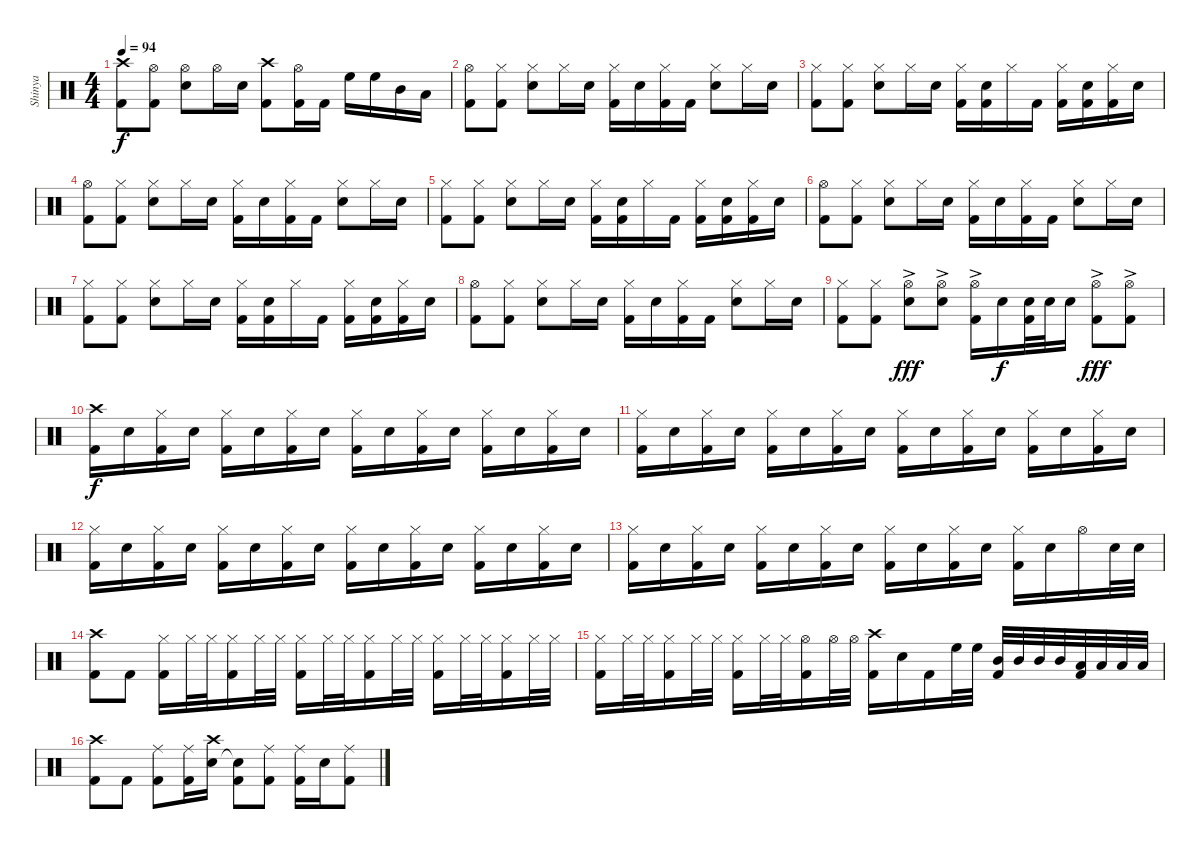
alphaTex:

\track ("Shinya" "Shinya") {instrument percussion}
\staff {score}
\articulation defaults
\ts (4 4)
\tempo 94
\clef neutral
\ks c
("Kick (hit) 2" "Crash high (hit)").8{dy f} ("Kick (hit) 2" "Hi-Hat (open)").8 ("Snare (hit) 2" "Hi-Hat (open)").8 "Hi-Hat (open)".16 "Snare (hit) 2".16 ("Crash high (hit)" "Kick (hit) 2").8 ("Hi-Hat (open)" "Kick (hit) 2").16 "Kick (hit) 2".16 "High Floor Tom (hit)".16 "High Floor Tom (hit)".16 "Mid Tom (hit)".16 "Low Tom (hit)".16 |
("Hi-Hat (open)" "Kick (hit) 2").8 ("Hi-Hat (closed)" "Kick (hit) 2").8 ("Hi-Hat (closed)" "Snare (hit) 2").8 "Hi-Hat (closed)".16 "Snare (hit) 2".16 ("Kick (hit) 2" "Hi-Hat (closed)").16 "Snare (hit) 2".16 ("Hi-Hat (closed)" "Kick (hit) 2").16 "Kick (hit) 2".16 ("Hi-Hat (closed)" "Snare (hit) 2").8 "Hi-Hat (closed)".16 "Snare (hit) 2".16 |
("Hi-Hat (closed)" "Kick (hit) 2").8 ("Hi-Hat (closed)" "Kick (hit) 2").8 ("Hi-Hat (closed)" "Snare (hit) 2").8 "Hi-Hat (closed)".16 "Snare (hit) 2".16 ("Hi-Hat (closed)" "Kick (hit) 2").16 ("Snare (hit) 2" "Kick (hit) 2").16 "Hi-Hat (closed)".16 "Kick (hit) 2".16 ("Hi-Hat (closed)" "Kick (hit) 2").16 ("Snare (hit) 2" "Kick (hit) 2").16 ("Hi-Hat (closed)" "Kick (hit) 2").16 "Snare (hit) 2".16 |
("Hi-Hat (open)" "Kick (hit) 2").8 ("Hi-Hat (closed)" "Kick (hit) 2").8 ("Hi-Hat (closed)" "Snare (hit) 2").8 "Hi-Hat (closed)".16 "Snare (hit) 2".16 ("Kick (hit) 2" "Hi-Hat (closed)").16 "Snare (hit) 2".16 ("Hi-Hat (closed)" "Kick (hit) 2").16 "Kick (hit) 2".16 ("Hi-Hat (closed)" "Snare (hit) 2").8 "Hi-Hat (closed)".16 "Snare (hit) 2".16 |
("Hi-Hat (closed)" "Kick (hit) 2").8 ("Hi-Hat (closed)" "Kick (hit) 2").8 ("Hi-Hat (closed)" "Snare (hit) 2").8 "Hi-Hat (closed)".16 "Snare (hit) 2".16 ("Hi-Hat (closed)" "Kick (hit) 2").16 ("Snare (hit) 2" "Kick (hit) 2").16 "Hi-Hat (closed)".16 "Kick (hit) 2".16 ("Hi-Hat (closed)" "Kick (hit) 2").16 ("Snare (hit) 2" "Kick (hit) 2").16 ("Hi-Hat (closed)" "Kick (hit) 2").16 "Snare (hit) 2".16 |
("Hi-Hat (open)" "Kick (hit) 2").8 ("Hi-Hat (closed)" "Kick (hit) 2").8 ("Hi-Hat (closed)" "Snare (hit) 2").8 "Hi-Hat (closed)".16 "Snare (hit) 2".16 ("Kick (hit) 2" "Hi-Hat (closed)").16 "Snare (hit) 2".16 ("Hi-Hat (closed)" "Kick (hit) 2").16 "Kick (hit) 2".16 ("Hi-Hat (closed)" "Snare (hit) 2").8 "Hi-Hat (closed)".16 "Snare (hit) 2".16 |
("Hi-Hat (closed)" "Kick (hit) 2").8 ("Hi-Hat (closed)" "Kick (hit) 2").8 ("Hi-Hat (closed)" "Snare (hit) 2").8 "Hi-Hat (closed)".16 "Snare (hit) 2".16 ("Hi-Hat (closed)" "Kick (hit) 2").16 ("Snare (hit) 2" "Kick (hit) 2").16 "Hi-Hat (closed)".16 "Kick (hit) 2".16 ("Hi-Hat (closed)" "Kick (hit) 2").16 ("Snare (hit) 2" "Kick (hit) 2").16 ("Hi-Hat (closed)" "Kick (hit) 2").16 "Snare (hit) 2".16 |
("Hi-Hat (open)" "Kick (hit) 2").8 ("Hi-Hat (closed)" "Kick (hit) 2").8 ("Hi-Hat (closed)" "Snare (hit) 2").8 "Hi-Hat (closed)".16 "Snare (hit) 2".16 ("Kick (hit) 2" "Hi-Hat (closed)").16 "Snare (hit) 2".16 ("Hi-Hat (closed)" "Kick (hit) 2").16 "Kick (hit) 2".16 ("Hi-Hat (closed)" "Snare (hit) 2").8 "Hi-Hat (closed)".16 "Snare (hit) 2".16 |
("Hi-Hat (closed)" "Kick (hit) 2").8 ("Hi-Hat (closed)" "Kick (hit) 2").8 ("Hi-Hat (open)"{ac} "Snare (hit) 2").8{dy fff} ("Hi-Hat (open)"{ac} "Snare (hit) 2").8 ("Hi-Hat (open)"{ac} "Kick (hit) 2").16 "Snare (hit) 2".16{dy f} ("Snare (hit) 2" "Kick (hit) 2").32 "Snare (hit) 2".32 "Snare (hit) 2".16 ("Hi-Hat (open)"{ac} "Kick (hit) 2").8{dy fff} ("Hi-Hat (open)"{ac} "Kick (hit) 2").8 |
("Crash high (hit)" "Kick (hit) 2").16{dy f} "Snare (hit) 2".16 ("Hi-Hat (closed)" "Kick (hit) 2").16 "Snare (hit) 2".16 ("Hi-Hat (closed)" "Kick (hit) 2").16 "Snare (hit) 2".16 ("Hi-Hat (closed)" "Kick (hit) 2").16 "Snare (hit) 2".16 ("Hi-Hat (closed)" "Kick (hit) 2").16 "Snare (hit) 2".16 ("Hi-Hat (closed)" "Kick (hit) 2").16 "Snare (hit) 2".16 ("Hi-Hat (closed)" "Kick (hit) 2").16 "Snare (hit) 2".16 ("Hi-Hat (closed)" "Kick (hit) 2").16 "Snare (hit) 2".16 |
("Hi-Hat (closed)" "Kick (hit) 2").16 "Snare (hit) 2".16 ("Hi-Hat (closed)" "Kick (hit) 2").16 "Snare (hit) 2".16 ("Hi-Hat (closed)" "Kick (hit) 2").16 "Snare (hit) 2".16 ("Hi-Hat (closed)" "Kick (hit) 2").16 "Snare (hit) 2".16 ("Hi-Hat (closed)" "Kick (hit) 2").16 "Snare (hit) 2".16 ("Hi-Hat (closed)" "Kick (hit) 2").16 "Snare (hit) 2".16 ("Hi-Hat (closed)" "Kick (hit) 2").16 "Snare (hit) 2".16 ("Hi-Hat (closed)" "Kick (hit) 2").16 "Snare (hit) 2".16 |
("Hi-Hat (closed)" "Kick (hit) 2").16 "Snare (hit) 2".16 ("Hi-Hat (closed)" "Kick (hit) 2").16 "Snare (hit) 2".16 ("Hi-Hat (closed)" "Kick (hit) 2").16 "Snare (hit) 2".16 ("Hi-Hat (closed)" "Kick (hit) 2").16 "Snare (hit) 2".16 ("Hi-Hat (closed)" "Kick (hit) 2").16 "Snare (hit) 2".16 ("Hi-Hat (closed)" "Kick (hit) 2").16 "Snare (hit) 2".16 ("Hi-Hat (closed)" "Kick (hit) 2").16 "Snare (hit) 2".16 ("Hi-Hat (closed)" "Kick (hit) 2").16 "Snare (hit) 2".16 |
("Hi-Hat (closed)" "Kick (hit) 2").16 "Snare (hit) 2".16 ("Hi-Hat (closed)" "Kick (hit) 2").16 "Snare (hit) 2".16 ("Hi-Hat (closed)" "Kick (hit) 2").16 "Snare (hit) 2".16 ("Hi-Hat (closed)" "Kick (hit) 2").16 "Snare (hit) 2".16 ("Hi-Hat (closed)" "Kick (hit) 2").16 "Snare (hit) 2".16 ("Hi-Hat (closed)" "Kick (hit) 2").16 "Snare (hit) 2".16 ("Hi-Hat (closed)" "Kick (hit) 2").16 "Snare (hit) 2".16 "Hi-Hat (open)".16 "Snare (hit) 2".32 "Snare (hit) 2".32 |
("Crash high (hit)" "Kick (hit) 2").8 "Kick (hit) 2".8 ("Hi-Hat (closed)" "Kick (hit) 2").16 "Hi-Hat (closed)".32 "Hi-Hat (closed)".32 ("Hi-Hat (closed)" "Kick (hit) 2").16 "Hi-Hat (closed)".32 "Hi-Hat (closed)".32 ("Hi-Hat (closed)" "Kick (hit) 2").16 "Hi-Hat (closed)".32 "Hi-Hat (closed)".32 ("Hi-Hat (closed)" "Kick (hit) 2").16 "Hi-Hat (closed)".32 "Hi-Hat (closed)".32 ("Hi-Hat (closed)" "Kick (hit) 2").16 "Hi-Hat (closed)".32 "Hi-Hat (closed)".32 ("Hi-Hat (closed)" "Kick (hit) 2").16 "Hi-Hat (closed)".32 "Hi-Hat (closed)".32 |
("Hi-Hat (closed)" "Kick (hit) 2").16 "Hi-Hat (closed)".32 "Hi-Hat (closed)".32 ("Hi-Hat (closed)" "Kick (hit) 2").16 "Hi-Hat (closed)".32 "Hi-Hat (closed)".32 ("Hi-Hat (closed)" "Kick (hit) 2").16 "Hi-Hat (closed)".32 "Hi-Hat (closed)".32 ("Hi-Hat (open)" "Kick (hit) 2").16 "Hi-Hat (open)".32 "Hi-Hat (open)".32 ("Crash high (hit)" "Kick (hit) 2").16 "Snare (hit) 2".16 "Kick (hit) 2".16 "High Floor Tom (hit)".32 "High Floor Tom (hit)".32 ("Mid Tom (hit)" "Kick (hit) 2").32 "Mid Tom (hit)".32 "Mid Tom (hit)".32 "Mid Tom (hit)".32 ("Low Tom (hit)" "Kick (hit) 2").32 "Low Tom (hit)".32 "Low Tom (hit)".32 "Low Tom (hit)".32 |
("Crash high (hit)" "Kick (hit) 2").8 "Kick (hit) 2".8 ("Ride (middle)" "Kick (hit) 2").8 ("Ride (middle)" "Kick (hit) 2").16 ("Snare (hit) 2" "Crash high (hit)").16 ("Snare (hit)"{t} "Kick (hit) 2").8 ("Ride (middle)" "Kick (hit) 2").8 ("Ride (middle)" "Kick (hit) 2").16 "Snare (hit) 2".16 ("Ride (middle)" "Kick (hit) 2").8
